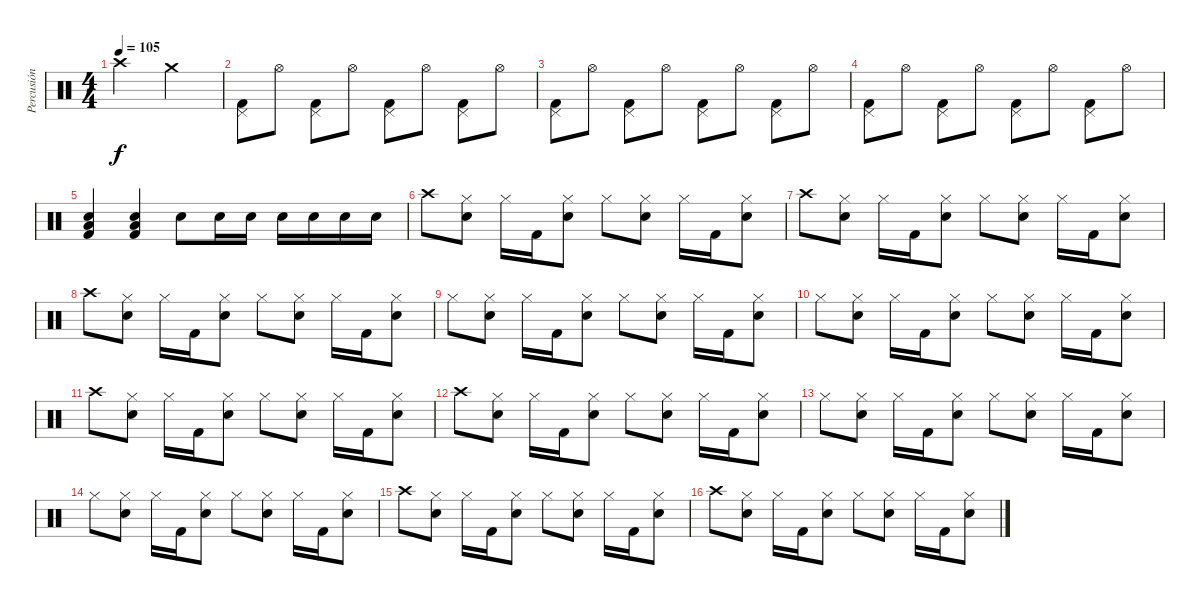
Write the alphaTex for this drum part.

\track ("Percusión" "Percusión") {instrument percussion}
\staff {score}
\articulation defaults
\ts (4 4)
\tempo 105
\clef neutral
\ks c "Crash high (hit)".2{dy f} "Crash medium (hit)".2
|
("Pedal Hi-Hat (hit)" "Kick (hit) 2").8 "Hi-Hat (open)".8 ("Pedal Hi-Hat (hit)" "Kick (hit) 2").8 "Hi-Hat (open)".8 ("Pedal Hi-Hat (hit)" "Kick (hit) 2").8 "Hi-Hat (open)".8 ("Pedal Hi-Hat (hit)" "Kick (hit) 2").8 "Hi-Hat (open)".8 |
("Pedal Hi-Hat (hit)" "Kick (hit) 2").8 "Hi-Hat (open)".8 ("Pedal Hi-Hat (hit)" "Kick (hit) 2").8 "Hi-Hat (open)".8 ("Pedal Hi-Hat (hit)" "Kick (hit) 2").8 "Hi-Hat (open)".8 ("Pedal Hi-Hat (hit)" "Kick (hit) 2").8 "Hi-Hat (open)".8 |
("Pedal Hi-Hat (hit)" "Kick (hit) 2").8 "Hi-Hat (open)".8 ("Pedal Hi-Hat (hit)" "Kick (hit) 2").8 "Hi-Hat (open)".8 ("Pedal Hi-Hat (hit)" "Kick (hit) 2").8 "Hi-Hat (open)".8 ("Pedal Hi-Hat (hit)" "Kick (hit) 2").8 "Hi-Hat (open)".8 |
("Snare (hit) 2" "Low Floor Tom (hit)" "Kick (hit) 2").4 ("Snare (hit) 2" "Low Floor Tom (hit)" "Kick (hit) 2").4 "Snare (hit) 2".8 "Snare (hit) 2".16 "Snare (hit) 2".16 "Snare (hit) 2".16 "Snare (hit) 2".16 "Snare (hit) 2".16 "Snare (hit) 2".16 |
"Crash high (hit)".8 ("Hi-Hat (closed)" "Snare (hit) 2").8 "Hi-Hat (closed)".16 "Kick (hit) 2".16 ("Hi-Hat (closed)" "Snare (hit) 2").8 "Hi-Hat (closed)".8 ("Hi-Hat (closed)" "Snare (hit) 2").8 "Hi-Hat (closed)".16 "Kick (hit) 2".16 ("Hi-Hat (closed)" "Snare (hit) 2").8 |
"Crash high (hit)".8 ("Hi-Hat (closed)" "Snare (hit) 2").8 "Hi-Hat (closed)".16 "Kick (hit) 2".16 ("Hi-Hat (closed)" "Snare (hit) 2").8 "Hi-Hat (closed)".8 ("Hi-Hat (closed)" "Snare (hit) 2").8 "Hi-Hat (closed)".16 "Kick (hit) 2".16 ("Hi-Hat (closed)" "Snare (hit) 2").8 |
"Crash high (hit)".8 ("Hi-Hat (closed)" "Snare (hit) 2").8 "Hi-Hat (closed)".16 "Kick (hit) 2".16 ("Hi-Hat (closed)" "Snare (hit) 2").8 "Hi-Hat (closed)".8 ("Hi-Hat (closed)" "Snare (hit) 2").8 "Hi-Hat (closed)".16 "Kick (hit) 2".16 ("Hi-Hat (closed)" "Snare (hit) 2").8 |
"Hi-Hat (closed)".8 ("Hi-Hat (closed)" "Snare (hit) 2").8 "Hi-Hat (closed)".16 "Kick (hit) 2".16 ("Hi-Hat (closed)" "Snare (hit) 2").8 "Hi-Hat (closed)".8 ("Hi-Hat (closed)" "Snare (hit) 2").8 "Hi-Hat (closed)".16 "Kick (hit) 2".16 ("Hi-Hat (closed)" "Snare (hit) 2").8 |
"Hi-Hat (closed)".8 ("Hi-Hat (closed)" "Snare (hit) 2").8 "Hi-Hat (closed)".16 "Kick (hit) 2".16 ("Hi-Hat (closed)" "Snare (hit) 2").8 "Hi-Hat (closed)".8 ("Hi-Hat (closed)" "Snare (hit) 2").8 "Hi-Hat (closed)".16 "Kick (hit) 2".16 ("Hi-Hat (closed)" "Snare (hit) 2").8 |
"Crash high (hit)".8 ("Hi-Hat (closed)" "Snare (hit) 2").8 "Hi-Hat (closed)".16 "Kick (hit) 2".16 ("Hi-Hat (closed)" "Snare (hit) 2").8 "Hi-Hat (closed)".8 ("Hi-Hat (closed)" "Snare (hit) 2").8 "Hi-Hat (closed)".16 "Kick (hit) 2".16 ("Hi-Hat (closed)" "Snare (hit) 2").8 |
"Crash high (hit)".8 ("Hi-Hat (closed)" "Snare (hit) 2").8 "Hi-Hat (closed)".16 "Kick (hit) 2".16 ("Hi-Hat (closed)" "Snare (hit) 2").8 "Hi-Hat (closed)".8 ("Hi-Hat (closed)" "Snare (hit) 2").8 "Hi-Hat (closed)".16 "Kick (hit) 2".16 ("Hi-Hat (closed)" "Snare (hit) 2").8 |
"Hi-Hat (closed)".8 ("Hi-Hat (closed)" "Snare (hit) 2").8 "Hi-Hat (closed)".16 "Kick (hit) 2".16 ("Hi-Hat (closed)" "Snare (hit) 2").8 "Hi-Hat (closed)".8 ("Hi-Hat (closed)" "Snare (hit) 2").8 "Hi-Hat (closed)".16 "Kick (hit) 2".16 ("Hi-Hat (closed)" "Snare (hit) 2").8 |
"Hi-Hat (closed)".8 ("Hi-Hat (closed)" "Snare (hit) 2").8 "Hi-Hat (closed)".16 "Kick (hit) 2".16 ("Hi-Hat (closed)" "Snare (hit) 2").8 "Hi-Hat (closed)".8 ("Hi-Hat (closed)" "Snare (hit) 2").8 "Hi-Hat (closed)".16 "Kick (hit) 2".16 ("Hi-Hat (closed)" "Snare (hit) 2").8 |
"Crash high (hit)".8 ("Hi-Hat (closed)" "Snare (hit) 2").8 "Hi-Hat (closed)".16 "Kick (hit) 2".16 ("Hi-Hat (closed)" "Snare (hit) 2").8 "Hi-Hat (closed)".8 ("Hi-Hat (closed)" "Snare (hit) 2").8 "Hi-Hat (closed)".16 "Kick (hit) 2".16 ("Hi-Hat (closed)" "Snare (hit) 2").8 |
"Crash high (hit)".8 ("Hi-Hat (closed)" "Snare (hit) 2").8 "Hi-Hat (closed)".16 "Kick (hit) 2".16 ("Hi-Hat (closed)" "Snare (hit) 2").8 "Hi-Hat (closed)".8 ("Hi-Hat (closed)" "Snare (hit) 2").8 "Hi-Hat (closed)".16 "Kick (hit) 2".16 ("Hi-Hat (closed)" "Snare (hit) 2").8
